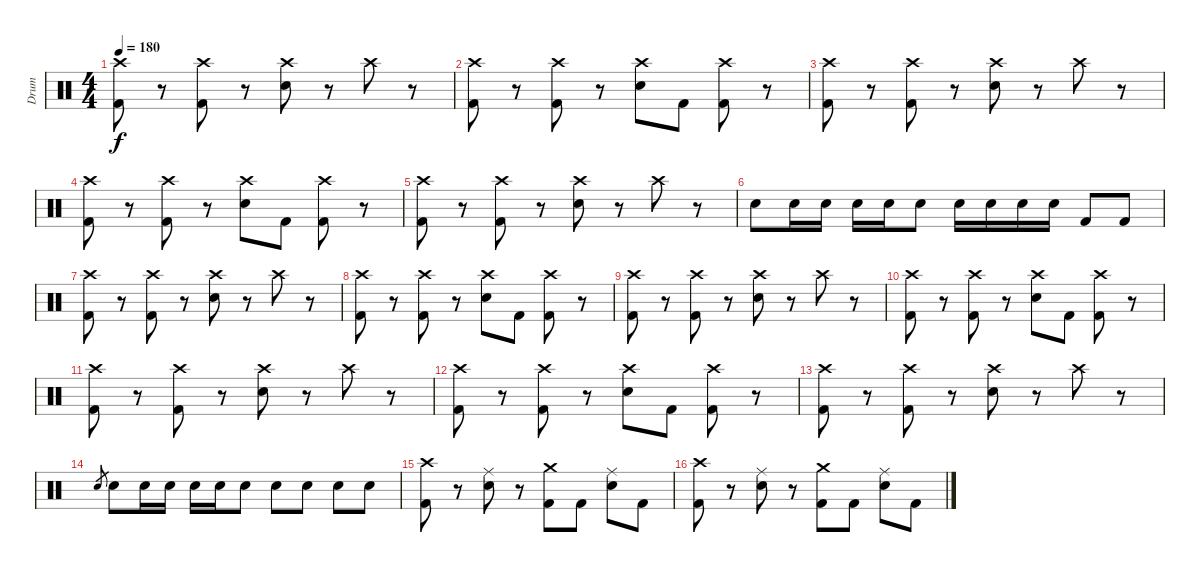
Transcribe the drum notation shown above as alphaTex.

\track ("Drum" "Drum") {instrument percussion}
\staff {score}
\articulation defaults
\ts (4 4)
\tempo 180
\clef neutral
\ks c
("Crash high (hit)" "Kick (hit) 2").8{dy f} r.8 ("Crash high (hit)" "Kick (hit) 2").8 r.8 ("Crash high (hit)" "Electric Snare (hit)").8 r.8 "Crash high (hit)".8 r.8 |
("Crash high (hit)" "Kick (hit) 2").8 r.8 ("Crash high (hit)" "Kick (hit) 2").8 r.8 ("Crash high (hit)" "Electric Snare (hit)").8 "Kick (hit) 2".8 ("Crash high (hit)" "Kick (hit) 2").8 r.8 |
("Crash high (hit)" "Kick (hit) 2").8 r.8 ("Crash high (hit)" "Kick (hit) 2").8 r.8 ("Crash high (hit)" "Electric Snare (hit)").8 r.8 "Crash high (hit)".8 r.8 |
("Crash high (hit)" "Kick (hit) 2").8 r.8 ("Crash high (hit)" "Kick (hit) 2").8 r.8 ("Crash high (hit)" "Electric Snare (hit)").8 "Kick (hit) 2".8 ("Crash high (hit)" "Kick (hit) 2").8 r.8 |
("Crash high (hit)" "Kick (hit) 2").8 r.8 ("Crash high (hit)" "Kick (hit) 2").8 r.8 ("Crash high (hit)" "Electric Snare (hit)").8 r.8 "Crash high (hit)".8 r.8 |
"Electric Snare (hit)".8 "Electric Snare (hit)".16 "Electric Snare (hit)".16 "Electric Snare (hit)".16 "Electric Snare (hit)".16 "Electric Snare (hit)".8 "Electric Snare (hit)".16 "Electric Snare (hit)".16 "Electric Snare (hit)".16 "Electric Snare (hit)".16 "Kick (hit) 2".8 "Kick (hit) 2".8 |
("Crash high (hit)" "Kick (hit) 2").8 r.8 ("Crash high (hit)" "Kick (hit) 2").8 r.8 ("Crash high (hit)" "Electric Snare (hit)").8 r.8 "Crash high (hit)".8 r.8 |
("Crash high (hit)" "Kick (hit) 2").8 r.8 ("Crash high (hit)" "Kick (hit) 2").8 r.8 ("Crash high (hit)" "Electric Snare (hit)").8 "Kick (hit) 2".8 ("Crash high (hit)" "Kick (hit) 2").8 r.8 |
("Crash high (hit)" "Kick (hit) 2").8 r.8 ("Crash high (hit)" "Kick (hit) 2").8 r.8 ("Crash high (hit)" "Electric Snare (hit)").8 r.8 "Crash high (hit)".8 r.8 |
("Crash high (hit)" "Kick (hit) 2").8 r.8 ("Crash high (hit)" "Kick (hit) 2").8 r.8 ("Crash high (hit)" "Electric Snare (hit)").8 "Kick (hit) 2".8 ("Crash high (hit)" "Kick (hit) 2").8 r.8 |
("Crash high (hit)" "Kick (hit) 2").8 r.8 ("Crash high (hit)" "Kick (hit) 2").8 r.8 ("Crash high (hit)" "Electric Snare (hit)").8 r.8 "Crash high (hit)".8 r.8 |
("Crash high (hit)" "Kick (hit) 2").8 r.8 ("Crash high (hit)" "Kick (hit) 2").8 r.8 ("Crash high (hit)" "Electric Snare (hit)").8 "Kick (hit) 2".8 ("Crash high (hit)" "Kick (hit) 2").8 r.8 |
("Crash high (hit)" "Kick (hit) 2").8 r.8 ("Crash high (hit)" "Kick (hit) 2").8 r.8 ("Crash high (hit)" "Electric Snare (hit)").8 r.8 "Crash high (hit)".8 r.8 |
"Electric Snare (hit)".8{gr} "Electric Snare (hit)".8 "Electric Snare (hit)".16 "Electric Snare (hit)".16 "Electric Snare (hit)".16 "Electric Snare (hit)".16 "Electric Snare (hit)".8 "Electric Snare (hit)".8 "Electric Snare (hit)".8 "Electric Snare (hit)".8 "Electric Snare (hit)".8 |
("Crash high (hit)" "Kick (hit) 2").8 r.8 ("Ride (middle)" "Electric Snare (hit)").8 r.8 ("Crash medium (hit)" "Kick (hit) 2").8 "Kick (hit) 2".8 ("Ride (middle)" "Electric Snare (hit)").8 "Kick (hit) 2".8 |
("Crash high (hit)" "Kick (hit) 2").8 r.8 ("Ride (middle)" "Electric Snare (hit)").8 r.8 ("Crash medium (hit)" "Kick (hit) 2").8 "Kick (hit) 2".8 ("Ride (middle)" "Electric Snare (hit)").8 "Kick (hit) 2".8
